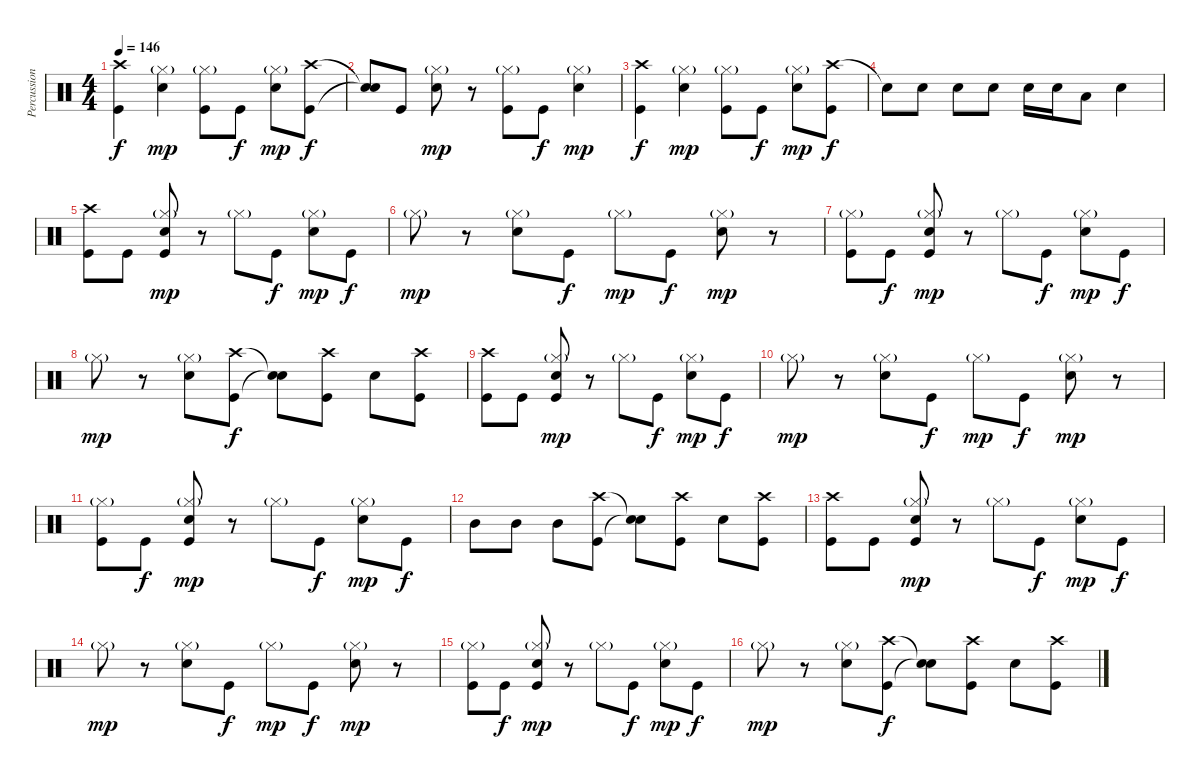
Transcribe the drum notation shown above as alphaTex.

\track ("Percussion" "Percussion") {instrument percussion}
\staff {score}
\articulation defaults
\ts (4 4)
\tempo 146
\clef neutral
\ks c
("Crash high (hit)" "Kick (hit)").4{dy f} ("Hi-Hat (closed)"{g} "Snare (hit) 2").4{dy mp} ("Hi-Hat (closed)"{g} "Kick (hit)").8 "Kick (hit)".8{dy f} ("Hi-Hat (closed)"{g} "Snare (hit) 2").8{dy mp} ("Crash high (hit)" "Kick (hit)").8{dy f} |
("Snare (hit)"{t} "Snare (hit)"{t}).8 "Kick (hit)".8 ("Hi-Hat (closed)"{g} "Snare (hit) 2").8{dy mp} r.8 ("Hi-Hat (closed)"{g} "Kick (hit)").8 "Kick (hit)".8{dy f} ("Hi-Hat (closed)"{g} "Snare (hit) 2").4{dy mp} |
("Crash high (hit)" "Kick (hit)").4{dy f} ("Hi-Hat (closed)"{g} "Snare (hit) 2").4{dy mp} ("Hi-Hat (closed)"{g} "Kick (hit)").8 "Kick (hit)".8{dy f} ("Hi-Hat (closed)"{g} "Snare (hit) 2").8{dy mp} ("Crash high (hit)" "Kick (hit)").8{dy f} |
"Snare (hit)"{t}.8 "Snare (hit) 2".8 "Snare (hit) 2".8 "Snare (hit) 2".8 "Snare (hit) 2".16 "Snare (hit) 2".16 "Low Tom (hit)".8 "Snare (hit) 2".4 |
("Crash high (hit)" "Kick (hit)").8 "Kick (hit)".8 ("Hi-Hat (closed)"{g} "Snare (hit) 2" "Kick (hit)").8{dy mp} r.8 "Hi-Hat (closed)"{g}.8 "Kick (hit)".8{dy f} ("Hi-Hat (closed)"{g} "Snare (hit) 2").8{dy mp} "Kick (hit)".8{dy f} |
"Hi-Hat (closed)"{g}.8{dy mp} r.8 ("Hi-Hat (closed)"{g} "Snare (hit) 2").8 "Kick (hit)".8{dy f} "Hi-Hat (closed)"{g}.8{dy mp} "Kick (hit)".8{dy f} ("Hi-Hat (closed)"{g} "Snare (hit) 2").8{dy mp} r.8 |
("Hi-Hat (closed)"{g} "Kick (hit)").8 "Kick (hit)".8{dy f} ("Hi-Hat (closed)"{g} "Snare (hit) 2" "Kick (hit)").8{dy mp} r.8 "Hi-Hat (closed)"{g}.8 "Kick (hit)".8{dy f} ("Hi-Hat (closed)"{g} "Snare (hit) 2").8{dy mp} "Kick (hit)".8{dy f} |
"Hi-Hat (closed)"{g}.8{dy mp} r.8 ("Hi-Hat (closed)"{g} "Snare (hit) 2").8 ("Crash high (hit)" "Kick (hit)").8{dy f} ("Snare (hit)"{t} "Snare (hit)"{t}).8 ("Crash high (hit)" "Kick (hit)").8 "Snare (hit) 2".8 ("Crash high (hit)" "Kick (hit)").8 |
("Crash high (hit)" "Kick (hit)").8 "Kick (hit)".8 ("Hi-Hat (closed)"{g} "Snare (hit) 2" "Kick (hit)").8{dy mp} r.8 "Hi-Hat (closed)"{g}.8 "Kick (hit)".8{dy f} ("Hi-Hat (closed)"{g} "Snare (hit) 2").8{dy mp} "Kick (hit)".8{dy f} |
"Hi-Hat (closed)"{g}.8{dy mp} r.8 ("Hi-Hat (closed)"{g} "Snare (hit) 2").8 "Kick (hit)".8{dy f} "Hi-Hat (closed)"{g}.8{dy mp} "Kick (hit)".8{dy f} ("Hi-Hat (closed)"{g} "Snare (hit) 2").8{dy mp} r.8 |
("Hi-Hat (closed)"{g} "Kick (hit)").8 "Kick (hit)".8{dy f} ("Hi-Hat (closed)"{g} "Snare (hit) 2" "Kick (hit)").8{dy mp} r.8 "Hi-Hat (closed)"{g}.8 "Kick (hit)".8{dy f} ("Hi-Hat (closed)"{g} "Snare (hit) 2").8{dy mp} "Kick (hit)".8{dy f} |
"Mid Tom (hit)".8 "Mid Tom (hit)".8 "Mid Tom (hit)".8 ("Crash high (hit)" "Kick (hit)").8 ("Snare (hit)"{t} "Snare (hit)"{t}).8 ("Crash high (hit)" "Kick (hit)").8 "Snare (hit) 2".8 ("Crash high (hit)" "Kick (hit)").8 |
("Crash high (hit)" "Kick (hit)").8 "Kick (hit)".8 ("Hi-Hat (closed)"{g} "Snare (hit) 2" "Kick (hit)").8{dy mp} r.8 "Hi-Hat (closed)"{g}.8 "Kick (hit)".8{dy f} ("Hi-Hat (closed)"{g} "Snare (hit) 2").8{dy mp} "Kick (hit)".8{dy f} |
"Hi-Hat (closed)"{g}.8{dy mp} r.8 ("Hi-Hat (closed)"{g} "Snare (hit) 2").8 "Kick (hit)".8{dy f} "Hi-Hat (closed)"{g}.8{dy mp} "Kick (hit)".8{dy f} ("Hi-Hat (closed)"{g} "Snare (hit) 2").8{dy mp} r.8 |
("Hi-Hat (closed)"{g} "Kick (hit)").8 "Kick (hit)".8{dy f} ("Hi-Hat (closed)"{g} "Snare (hit) 2" "Kick (hit)").8{dy mp} r.8 "Hi-Hat (closed)"{g}.8 "Kick (hit)".8{dy f} ("Hi-Hat (closed)"{g} "Snare (hit) 2").8{dy mp} "Kick (hit)".8{dy f} |
"Hi-Hat (closed)"{g}.8{dy mp} r.8 ("Hi-Hat (closed)"{g} "Snare (hit) 2").8 ("Crash high (hit)" "Kick (hit)").8{dy f} ("Snare (hit)"{t} "Snare (hit)"{t}).8 ("Crash high (hit)" "Kick (hit)").8 "Snare (hit) 2".8 ("Crash high (hit)" "Kick (hit)").8
